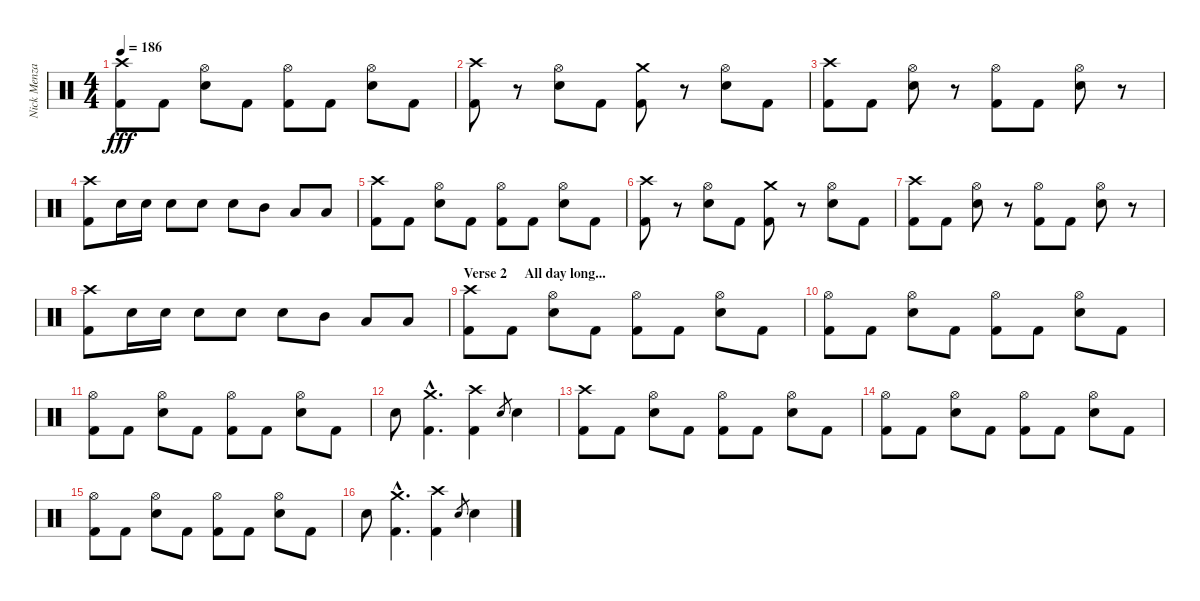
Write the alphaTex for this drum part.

\track ("Nick Menza [Drums]" "Nick Menza") {instrument percussion}
\staff {score}
\articulation defaults
\ts (4 4)
\tempo 186
\clef neutral
\ks c
("Kick (hit) 2" "Crash high (hit)").8{dy fff} "Kick (hit) 2".8 ("Snare (hit) 2" "Hi-Hat (open)").8 "Kick (hit) 2".8 ("Kick (hit) 2" "Hi-Hat (open)").8 "Kick (hit) 2".8 ("Snare (hit) 2" "Hi-Hat (open)").8 "Kick (hit) 2".8 |
("Kick (hit) 2" "Crash high (hit)").8 r.8 ("Snare (hit) 2" "Hi-Hat (open)").8 "Kick (hit) 2".8 ("Kick (hit) 2" "Crash medium (hit)").8 r.8 ("Snare (hit) 2" "Hi-Hat (open)").8 "Kick (hit) 2".8 |
("Kick (hit) 2" "Crash high (hit)").8 "Kick (hit) 2".8 ("Snare (hit) 2" "Hi-Hat (open)").8 r.8 ("Kick (hit) 2" "Hi-Hat (open)").8 "Kick (hit) 2".8 ("Snare (hit) 2" "Hi-Hat (open)").8 r.8 |
("Kick (hit) 2" "Crash high (hit)").8 "Snare (hit) 2".16 "Snare (hit) 2".16 "Snare (hit) 2".8 "Snare (hit) 2".8 "Snare (hit) 2".8 "Mid Tom (hit)".8 "Low Tom (hit)".8 "Low Tom (hit)".8 |
("Kick (hit) 2" "Crash high (hit)").8 "Kick (hit) 2".8 ("Snare (hit) 2" "Hi-Hat (open)").8 "Kick (hit) 2".8 ("Kick (hit) 2" "Hi-Hat (open)").8 "Kick (hit) 2".8 ("Snare (hit) 2" "Hi-Hat (open)").8 "Kick (hit) 2".8 |
("Kick (hit) 2" "Crash high (hit)").8 r.8 ("Snare (hit) 2" "Hi-Hat (open)").8 "Kick (hit) 2".8 ("Kick (hit) 2" "Crash medium (hit)").8 r.8 ("Snare (hit) 2" "Hi-Hat (open)").8 "Kick (hit) 2".8 |
("Kick (hit) 2" "Crash high (hit)").8 "Kick (hit) 2".8 ("Snare (hit) 2" "Hi-Hat (open)").8 r.8 ("Kick (hit) 2" "Hi-Hat (open)").8 "Kick (hit) 2".8 ("Snare (hit) 2" "Hi-Hat (open)").8 r.8 |
("Kick (hit) 2" "Crash high (hit)").8 "Snare (hit) 2".16 "Snare (hit) 2".16 "Snare (hit) 2".8 "Snare (hit) 2".8 "Snare (hit) 2".8 "Mid Tom (hit)".8 "Low Tom (hit)".8 "Low Tom (hit)".8 |
\section ("" "Verse 2     All day long...")
("Kick (hit) 2" "Crash high (hit)").8 "Kick (hit) 2".8 ("Snare (hit) 2" "Hi-Hat (open)").8 "Kick (hit) 2".8 ("Kick (hit) 2" "Hi-Hat (open)").8 "Kick (hit) 2".8 ("Snare (hit) 2" "Hi-Hat (open)").8 "Kick (hit) 2".8 |
("Kick (hit) 2" "Hi-Hat (open)").8 "Kick (hit) 2".8 ("Snare (hit) 2" "Hi-Hat (open)").8 "Kick (hit) 2".8 ("Kick (hit) 2" "Hi-Hat (open)").8 "Kick (hit) 2".8 ("Snare (hit) 2" "Hi-Hat (open)").8 "Kick (hit) 2".8 |
("Kick (hit) 2" "Hi-Hat (open)").8 "Kick (hit) 2".8 ("Snare (hit) 2" "Hi-Hat (open)").8 "Kick (hit) 2".8 ("Kick (hit) 2" "Hi-Hat (open)").8 "Kick (hit) 2".8 ("Snare (hit) 2" "Hi-Hat (open)").8 "Kick (hit) 2".8 |
"Snare (hit) 2".8 ("Kick (hit) 2"{hac} "Crash medium (hit)"{hac}).4{d} ("Kick (hit) 2" "Crash high (hit)").4 "Snare (hit) 2".8{gr} "Snare (hit) 2".4 |
("Kick (hit) 2" "Crash high (hit)").8 "Kick (hit) 2".8 ("Snare (hit) 2" "Hi-Hat (open)").8 "Kick (hit) 2".8 ("Kick (hit) 2" "Hi-Hat (open)").8 "Kick (hit) 2".8 ("Snare (hit) 2" "Hi-Hat (open)").8 "Kick (hit) 2".8 |
("Kick (hit) 2" "Hi-Hat (open)").8 "Kick (hit) 2".8 ("Snare (hit) 2" "Hi-Hat (open)").8 "Kick (hit) 2".8 ("Kick (hit) 2" "Hi-Hat (open)").8 "Kick (hit) 2".8 ("Snare (hit) 2" "Hi-Hat (open)").8 "Kick (hit) 2".8 |
("Kick (hit) 2" "Hi-Hat (open)").8 "Kick (hit) 2".8 ("Snare (hit) 2" "Hi-Hat (open)").8 "Kick (hit) 2".8 ("Kick (hit) 2" "Hi-Hat (open)").8 "Kick (hit) 2".8 ("Snare (hit) 2" "Hi-Hat (open)").8 "Kick (hit) 2".8 |
"Snare (hit) 2".8 ("Kick (hit) 2"{hac} "Crash medium (hit)"{hac}).4{d} ("Kick (hit) 2" "Crash high (hit)").4 "Snare (hit) 2".8{gr} "Snare (hit) 2".4
